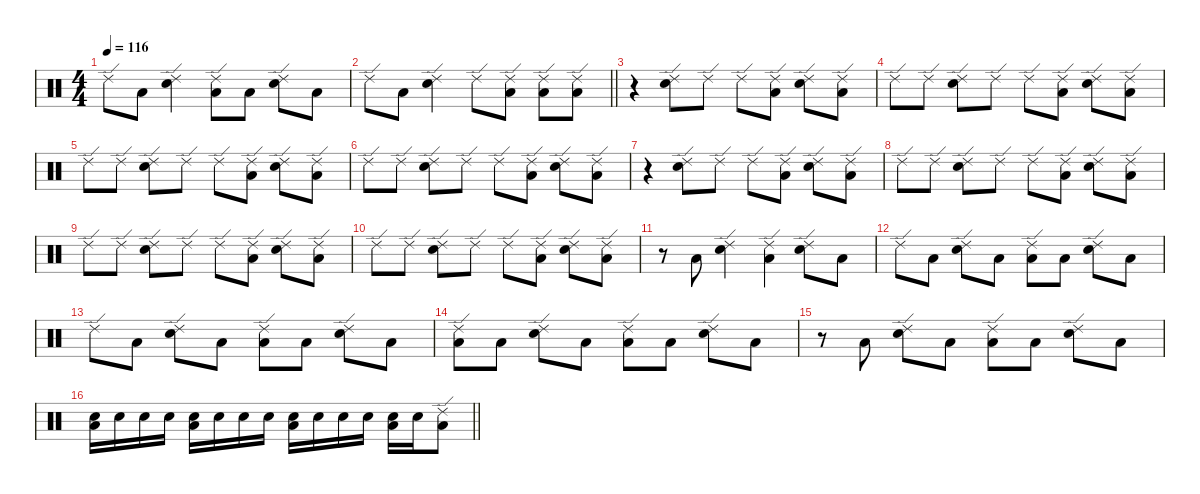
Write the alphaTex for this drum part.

\defaultSystemsLayout 4
\hideDynamics
\bracketExtendMode nobrackets
\singleTrackTrackNamePolicy hidden
\multiTrackTrackNamePolicy hidden
\otherSystemsTrackNameOrientation horizontal
\track ("Drums" "drm.") {instrument percussion}
\staff {score}
\articulation defaults
\ts (4 4)
\tempo 116
\clef neutral
\ks c "Ride (edge) 2".8{dy f beam Down} "Low Floor Tom (hit)".8{beam Down}
("Snare (hit) 2" "Ride (edge) 2").4{beam Down} ("Low Floor Tom (hit)" "Ride (edge) 2").8{beam Down} "Low Floor Tom (hit)".8{beam Down} ("Snare (hit) 2" "Ride (edge) 2").8{beam Down} "Low Floor Tom (hit)".8{beam Down} |
\barLineRight lightlight "Ride (edge) 2".8{beam Down} "Low Floor Tom (hit)".8{beam Down}
("Snare (hit) 2" "Ride (edge) 2").4{beam Down} "Ride (edge) 2".8{beam Down} ("Low Floor Tom (hit)" "Ride (edge) 2").8{beam Down} ("Low Floor Tom (hit)" "Ride (edge) 2").8{beam Down} ("Low Floor Tom (hit)" "Ride (edge) 2").8{beam Down} |
r.4{beam Down} ("Snare (hit) 2" "Ride (edge) 2").8{beam Down} "Ride (edge) 2".8{beam Down} "Ride (edge) 2".8{beam Down} ("Low Floor Tom (hit)" "Ride (edge) 2").8{beam Down} ("Snare (hit) 2" "Ride (edge) 2").8{beam Down} ("Low Floor Tom (hit)" "Ride (edge) 2").8{beam Down} |
"Ride (edge) 2".8{beam Down} "Ride (edge) 2".8{beam Down} ("Snare (hit) 2" "Ride (edge) 2").8{beam Down} "Ride (edge) 2".8{beam Down} "Ride (edge) 2".8{beam Down} ("Low Floor Tom (hit)" "Ride (edge) 2").8{beam Down} ("Snare (hit) 2" "Ride (edge) 2").8{beam Down} ("Low Floor Tom (hit)" "Ride (edge) 2").8{beam Down} |
"Ride (edge) 2".8{beam Down} "Ride (edge) 2".8{beam Down} ("Snare (hit) 2" "Ride (edge) 2").8{beam Down} "Ride (edge) 2".8{beam Down} "Ride (edge) 2".8{beam Down} ("Low Floor Tom (hit)" "Ride (edge) 2").8{beam Down} ("Snare (hit) 2" "Ride (edge) 2").8{beam Down} ("Low Floor Tom (hit)" "Ride (edge) 2").8{beam Down} |
"Ride (edge) 2".8{beam Down} "Ride (edge) 2".8{beam Down} ("Snare (hit) 2" "Ride (edge) 2").8{beam Down} "Ride (edge) 2".8{beam Down} "Ride (edge) 2".8{beam Down} ("Low Floor Tom (hit)" "Ride (edge) 2").8{beam Down} ("Snare (hit) 2" "Ride (edge) 2").8{beam Down} ("Low Floor Tom (hit)" "Ride (edge) 2").8{beam Down} |
r.4{beam Down} ("Snare (hit) 2" "Ride (edge) 2").8{beam Down} "Ride (edge) 2".8{beam Down} "Ride (edge) 2".8{beam Down} ("Low Floor Tom (hit)" "Ride (edge) 2").8{beam Down} ("Snare (hit) 2" "Ride (edge) 2").8{beam Down} ("Low Floor Tom (hit)" "Ride (edge) 2").8{beam Down} |
"Ride (edge) 2".8{beam Down} "Ride (edge) 2".8{beam Down} ("Snare (hit) 2" "Ride (edge) 2").8{beam Down} "Ride (edge) 2".8{beam Down} "Ride (edge) 2".8{beam Down} ("Low Floor Tom (hit)" "Ride (edge) 2").8{beam Down} ("Snare (hit) 2" "Ride (edge) 2").8{beam Down} ("Low Floor Tom (hit)" "Ride (edge) 2").8{beam Down} |
"Ride (edge) 2".8{beam Down} "Ride (edge) 2".8{beam Down} ("Snare (hit) 2" "Ride (edge) 2").8{beam Down} "Ride (edge) 2".8{beam Down} "Ride (edge) 2".8{beam Down} ("Low Floor Tom (hit)" "Ride (edge) 2").8{beam Down} ("Snare (hit) 2" "Ride (edge) 2").8{beam Down} ("Low Floor Tom (hit)" "Ride (edge) 2").8{beam Down} |
"Ride (edge) 2".8{beam Down} "Ride (edge) 2".8{beam Down} ("Snare (hit) 2" "Ride (edge) 2").8{beam Down} "Ride (edge) 2".8{beam Down} "Ride (edge) 2".8{beam Down} ("Low Floor Tom (hit)" "Ride (edge) 2").8{beam Down} ("Snare (hit) 2" "Ride (edge) 2").8{beam Down} ("Low Floor Tom (hit)" "Ride (edge) 2").8{beam Down} |
r.8{beam Down} "Low Floor Tom (hit)".8{beam Up} ("Snare (hit) 2" "Ride (edge) 2").4{beam Down} ("Low Floor Tom (hit)" "Ride (edge) 2").4{beam Down} ("Snare (hit) 2" "Ride (edge) 2").8{beam Down} "Low Floor Tom (hit)".8{beam Down} |
"Ride (edge) 2".8{beam Down} "Low Floor Tom (hit)".8{beam Down} ("Snare (hit) 2" "Ride (edge) 2").8{beam Down} "Low Floor Tom (hit)".8{beam Down} ("Low Floor Tom (hit)" "Ride (edge) 2").8{beam Down} "Low Floor Tom (hit)".8{beam Down} ("Snare (hit) 2" "Ride (edge) 2").8{beam Down} "Low Floor Tom (hit)".8{beam Down} |
"Ride (edge) 2".8{beam Down} "Low Floor Tom (hit)".8{beam Down} ("Snare (hit) 2" "Ride (edge) 2").8{beam Down} "Low Floor Tom (hit)".8{beam Down} ("Low Floor Tom (hit)" "Ride (edge) 2").8{beam Down} "Low Floor Tom (hit)".8{beam Down} ("Snare (hit) 2" "Ride (edge) 2").8{beam Down} "Low Floor Tom (hit)".8{beam Down} |
("Low Floor Tom (hit)" "Ride (edge) 2").8{beam Down} "Low Floor Tom (hit)".8{beam Down} ("Snare (hit) 2" "Ride (edge) 2").8{beam Down} "Low Floor Tom (hit)".8{beam Down} ("Low Floor Tom (hit)" "Ride (edge) 2").8{beam Down} "Low Floor Tom (hit)".8{beam Down} ("Snare (hit) 2" "Ride (edge) 2").8{beam Down} "Low Floor Tom (hit)".8{beam Down} |
r.8{beam Down} "Low Floor Tom (hit)".8{beam Up} ("Snare (hit) 2" "Ride (edge) 2").8{beam Down} "Low Floor Tom (hit)".8{beam Down} ("Low Floor Tom (hit)" "Ride (edge) 2").8{beam Down} "Low Floor Tom (hit)".8{beam Down} ("Snare (hit) 2" "Ride (edge) 2").8{beam Down} "Low Floor Tom (hit)".8{beam Down} |
\barLineRight lightlight
("Snare (hit) 2" "Low Floor Tom (hit)").16{beam Down} "Snare (hit) 2".16{beam Down} "Snare (hit) 2".16{beam Down} "Snare (hit) 2".16{beam Down} ("Snare (hit) 2" "Low Floor Tom (hit)").16{beam Down} "Snare (hit) 2".16{beam Down} "Snare (hit) 2".16{beam Down} "Snare (hit) 2".16{beam Down} ("Snare (hit) 2" "Low Floor Tom (hit)").16{beam Down} "Snare (hit) 2".16{beam Down} "Snare (hit) 2".16{beam Down} "Snare (hit) 2".16{beam Down} ("Snare (hit) 2" "Low Floor Tom (hit)").16{beam Down} "Snare (hit) 2".16{beam Down} ("Low Floor Tom (hit)" "Ride (edge) 2").8{beam Down}
